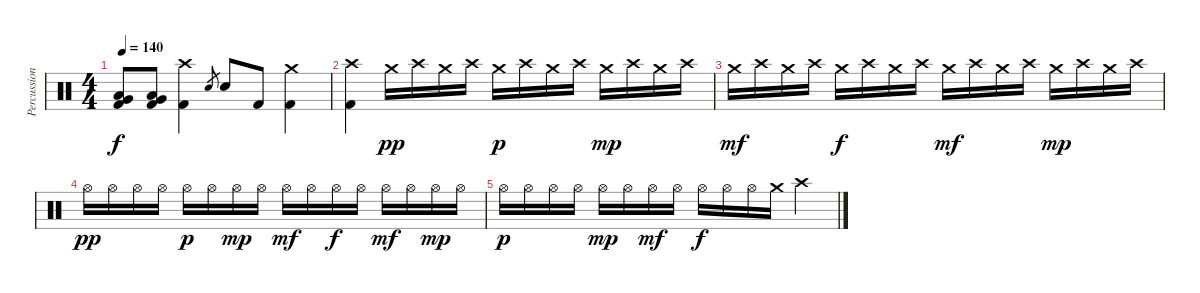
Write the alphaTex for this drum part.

\track ("Percussion" "Percussion") {instrument percussion}
\staff {score}
\articulation defaults
\ts (4 4)
\tempo 140
\clef neutral
\ks c
("Low Tom (hit)" "Very Low Tom (hit)" "Kick (hit) 2").8{dy f} ("Low Tom (hit)" "Very Low Tom (hit)" "Kick (hit) 2").8 ("Crash high (hit)" "Kick (hit) 2").4 "Snare (hit) 2".8{gr} "Snare (hit) 2".8 "Kick (hit) 2".8 ("Crash medium (hit)" "Kick (hit) 2").4 |
("Crash high (hit)" "Kick (hit) 2").4 "Crash medium (hit)".16{dy pp} "Crash high (hit)".16 "Crash medium (hit)".16 "Crash high (hit)".16 "Crash medium (hit)".16{dy p} "Crash high (hit)".16 "Crash medium (hit)".16 "Crash high (hit)".16 "Crash medium (hit)".16{dy mp} "Crash high (hit)".16 "Crash medium (hit)".16 "Crash high (hit)".16 |
"Crash medium (hit)".16{dy mf} "Crash high (hit)".16 "Crash medium (hit)".16 "Crash high (hit)".16 "Crash medium (hit)".16{dy f} "Crash high (hit)".16 "Crash medium (hit)".16 "Crash high (hit)".16 "Crash medium (hit)".16{dy mf} "Crash high (hit)".16 "Crash medium (hit)".16 "Crash high (hit)".16 "Crash medium (hit)".16{dy mp} "Crash high (hit)".16 "Crash medium (hit)".16 "Crash high (hit)".16 |
"Hi-Hat (open)".16{dy pp} "Hi-Hat (open)".16 "Hi-Hat (open)".16 "Hi-Hat (open)".16 "Hi-Hat (open)".16{dy p} "Hi-Hat (open)".16 "Hi-Hat (open)".16{dy mp} "Hi-Hat (open)".16 "Hi-Hat (open)".16{dy mf} "Hi-Hat (open)".16 "Hi-Hat (open)".16{dy f} "Hi-Hat (open)".16 "Hi-Hat (open)".16{dy mf} "Hi-Hat (open)".16 "Hi-Hat (open)".16{dy mp} "Hi-Hat (open)".16 |
"Hi-Hat (open)".16{dy p} "Hi-Hat (open)".16 "Hi-Hat (open)".16 "Hi-Hat (open)".16 "Hi-Hat (open)".16{dy mp} "Hi-Hat (open)".16 "Hi-Hat (open)".16{dy mf} "Hi-Hat (open)".16 "Hi-Hat (open)".16{dy f} "Hi-Hat (open)".16 "Hi-Hat (open)".16 "Crash medium (hit)".16 "Crash high (hit)".4
